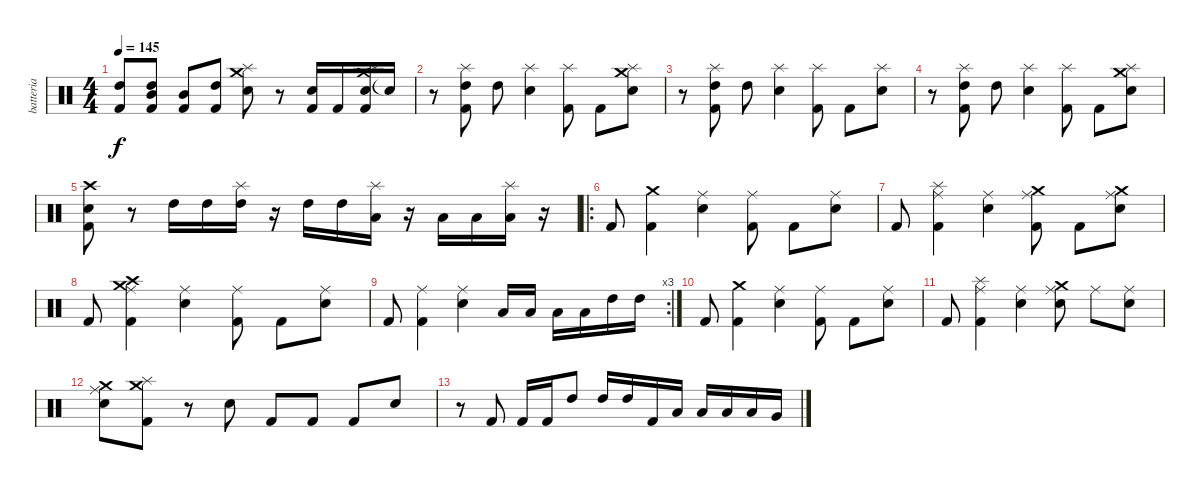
\track ("batteria" "batteria") {instrument percussion}
\staff {score}
\articulation defaults
\ts (4 4)
\tempo 145
\clef neutral
\ks c
("High Tom (hit)" "Kick (hit) 2").8{dy f} ("High Tom (hit)" "Kick (hit) 2" "Mid Tom (hit)").8 ("Kick (hit) 2" "Mid Tom (hit)").8 ("Kick (hit) 2" "High Tom (hit)").8 ("Crash medium (hit)" "Splash (hit)" "Electric Snare (hit)").8 r.8 ("Electric Snare (hit)" "Kick (hit) 2").16 "Kick (hit) 2".16 ("Crash medium (hit)" "Kick (hit) 2" "Splash (hit)" "Electric Snare (hit)").16 "Snare (hit)"{t}.16 |
r.8 ("High Tom (hit)" "Splash (hit)" "Kick (hit) 2").8 "High Tom (hit)".8 ("Splash (hit)" "Electric Snare (hit)").4 ("Splash (hit)" "Kick (hit) 2").8 "Kick (hit) 2".8 ("Crash medium (hit)" "Splash (hit)" "Electric Snare (hit)").8 |
r.8 ("High Tom (hit)" "Splash (hit)" "Kick (hit) 2").8 "High Tom (hit)".8 ("Splash (hit)" "Electric Snare (hit)").4 ("Splash (hit)" "Kick (hit) 2").8 "Kick (hit) 2".8 ("Splash (hit)" "Electric Snare (hit)").8 |
r.8 ("High Tom (hit)" "Splash (hit)" "Kick (hit) 2").8 "High Tom (hit)".8 ("Splash (hit)" "Electric Snare (hit)").4 ("Splash (hit)" "Kick (hit) 2").8 "Kick (hit) 2".8 ("Crash medium (hit)" "Splash (hit)" "Electric Snare (hit)").8 |
("Kick (hit) 2" "Electric Snare (hit)" "Crash high (hit)").8 r.8 "High Tom (hit)".16 "High Tom (hit)".16 ("Splash (hit)" "High Tom (hit)").16 r.16 "High Tom (hit)".16 "High Tom (hit)".16 ("Splash (hit)" "Low Tom (hit)").16 r.16 "Low Tom (hit)".16 "Low Tom (hit)".16 ("Splash (hit)" "Low Tom (hit)").16 r.16 |
\ro "Kick (hit) 2".8
("Crash medium (hit)" "Kick (hit) 2").4 ("Ride (middle)" "Electric Snare (hit)").4 ("Ride (middle)" "Kick (hit) 2").8 "Kick (hit) 2".8 ("Ride (middle)" "Electric Snare (hit)").8 |
"Kick (hit) 2".8 ("Splash (hit)" "Kick (hit) 2" "Ride (middle)").4 ("Ride (middle)" "Electric Snare (hit)").4 ("Crash medium (hit)" "Ride (middle)" "Kick (hit) 2").8 "Kick (hit) 2".8 ("Crash medium (hit)" "Ride (middle)" "Electric Snare (hit)").8 |
"Kick (hit) 2".8 ("Crash high (hit)" "Crash medium (hit)" "Ride (middle)" "Kick (hit) 2").4 ("Ride (middle)" "Electric Snare (hit)").4 ("Ride (middle)" "Kick (hit) 2").8 "Kick (hit) 2".8 ("Ride (middle)" "Electric Snare (hit)").8 |
\rc 3 "Kick (hit) 2".8
("Ride (middle)" "Kick (hit) 2").4 ("Ride (middle)" "Electric Snare (hit)").4 "Low Tom (hit)".16 "Low Tom (hit)".16 "Low Tom (hit)".16 "Low Tom (hit)".16 "High Tom (hit)".16 "High Tom (hit)".16 |
"Kick (hit) 2".8 ("Crash medium (hit)" "Kick (hit) 2").4 ("Ride (middle)" "Electric Snare (hit)").4 ("Ride (middle)" "Kick (hit) 2").8 "Kick (hit) 2".8 ("Ride (middle)" "Electric Snare (hit)").8 |
"Kick (hit) 2".8 ("Splash (hit)" "Kick (hit) 2" "Ride (middle)").4 ("Ride (middle)" "Electric Snare (hit)").4 ("Crash medium (hit)" "Ride (middle)" "Electric Snare (hit)").8 "Ride (middle)".8 ("Ride (middle)" "Electric Snare (hit)").8 |
("Crash medium (hit)" "Ride (middle)" "Electric Snare (hit)").8 ("Crash medium (hit)" "Splash (hit)" "Kick (hit) 2").8 r.8 "Electric Snare (hit)".8 "Kick (hit) 2".8 "Kick (hit) 2".8 "Kick (hit) 2".8 "Electric Snare (hit)".8 |
r.8 "Kick (hit) 2".8 "Kick (hit) 2".16 "Kick (hit) 2".16 "High Tom (hit)".8 "High Tom (hit)".16 "High Tom (hit)".16 "Kick (hit) 2".16 "Low Tom (hit)".16 "Low Tom (hit)".16 "Low Tom (hit)".16 "Low Tom (hit)".16 "Very Low Tom (hit)".16
